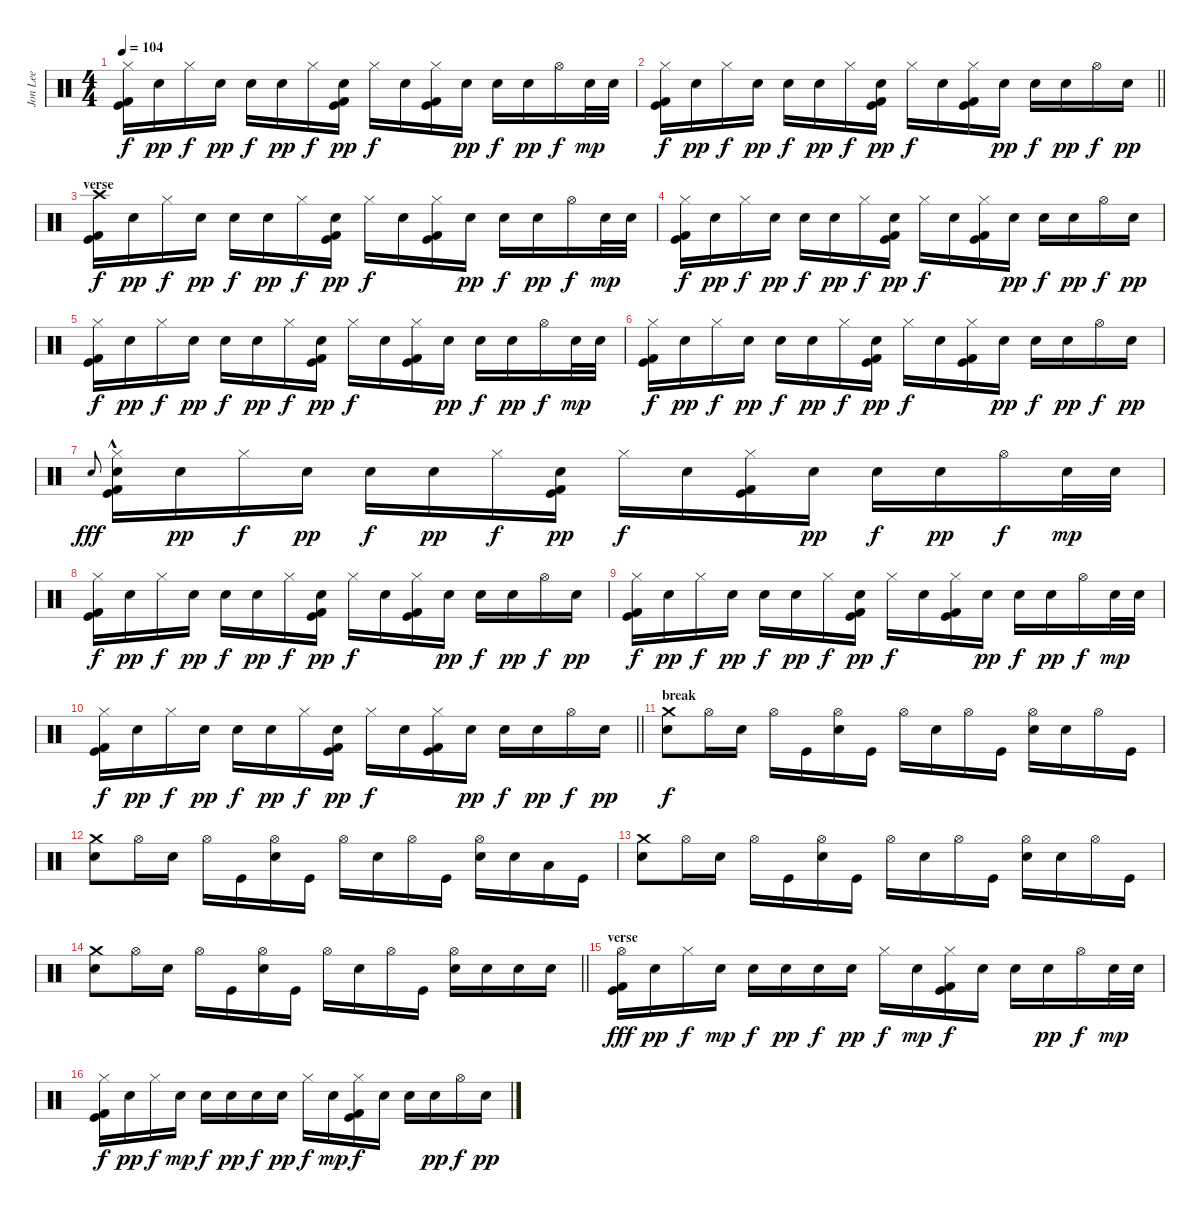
\track ("Jon Lee" "Jon Lee") {instrument percussion}
\staff {score}
\articulation defaults
\ts (4 4)
\tempo 104
\clef neutral
\ks c
("Hi-Hat (closed)" "Kick (hit)" "Kick (hit) 2").16{dy f} "Electric Snare (hit)".16{dy pp} "Hi-Hat (closed)".16{dy f} "Electric Snare (hit)".16{dy pp} "Electric Snare (hit)".16{dy f} "Electric Snare (hit)".16{dy pp} "Hi-Hat (closed)".16{dy f} ("Electric Snare (hit)" "Kick (hit)" "Kick (hit) 2").16{dy pp} "Hi-Hat (closed)".16{dy f} "Electric Snare (hit)".16 ("Hi-Hat (closed)" "Kick (hit)" "Kick (hit) 2").16 "Electric Snare (hit)".16{dy pp} "Electric Snare (hit)".16{dy f} "Electric Snare (hit)".16{dy pp} "Hi-Hat (open)".16{dy f} "Electric Snare (hit)".32{dy mp} "Electric Snare (hit)".32 |
\barLineRight lightlight
("Hi-Hat (closed)" "Kick (hit)" "Kick (hit) 2").16{dy f} "Electric Snare (hit)".16{dy pp} "Hi-Hat (closed)".16{dy f} "Electric Snare (hit)".16{dy pp} "Electric Snare (hit)".16{dy f} "Electric Snare (hit)".16{dy pp} "Hi-Hat (closed)".16{dy f} ("Electric Snare (hit)" "Kick (hit)" "Kick (hit) 2").16{dy pp} "Hi-Hat (closed)".16{dy f} "Electric Snare (hit)".16 ("Hi-Hat (closed)" "Kick (hit)" "Kick (hit) 2").16 "Electric Snare (hit)".16{dy pp} "Electric Snare (hit)".16{dy f} "Electric Snare (hit)".16{dy pp} "Hi-Hat (open)".16{dy f} "Electric Snare (hit)".16{dy pp} |
\section ("" "verse")
("Crash high (hit)" "Kick (hit)" "Kick (hit) 2").16{dy f} "Electric Snare (hit)".16{dy pp} "Hi-Hat (closed)".16{dy f} "Electric Snare (hit)".16{dy pp} "Electric Snare (hit)".16{dy f} "Electric Snare (hit)".16{dy pp} "Hi-Hat (closed)".16{dy f} ("Electric Snare (hit)" "Kick (hit)" "Kick (hit) 2").16{dy pp} "Hi-Hat (closed)".16{dy f} "Electric Snare (hit)".16 ("Hi-Hat (closed)" "Kick (hit)" "Kick (hit) 2").16 "Electric Snare (hit)".16{dy pp} "Electric Snare (hit)".16{dy f} "Electric Snare (hit)".16{dy pp} "Hi-Hat (open)".16{dy f} "Electric Snare (hit)".32{dy mp} "Electric Snare (hit)".32 |
("Hi-Hat (closed)" "Kick (hit)" "Kick (hit) 2").16{dy f} "Electric Snare (hit)".16{dy pp} "Hi-Hat (closed)".16{dy f} "Electric Snare (hit)".16{dy pp} "Electric Snare (hit)".16{dy f} "Electric Snare (hit)".16{dy pp} "Hi-Hat (closed)".16{dy f} ("Electric Snare (hit)" "Kick (hit)" "Kick (hit) 2").16{dy pp} "Hi-Hat (closed)".16{dy f} "Electric Snare (hit)".16 ("Hi-Hat (closed)" "Kick (hit)" "Kick (hit) 2").16 "Electric Snare (hit)".16{dy pp} "Electric Snare (hit)".16{dy f} "Electric Snare (hit)".16{dy pp} "Hi-Hat (open)".16{dy f} "Electric Snare (hit)".16{dy pp} |
("Hi-Hat (closed)" "Kick (hit)" "Kick (hit) 2").16{dy f} "Electric Snare (hit)".16{dy pp} "Hi-Hat (closed)".16{dy f} "Electric Snare (hit)".16{dy pp} "Electric Snare (hit)".16{dy f} "Electric Snare (hit)".16{dy pp} "Hi-Hat (closed)".16{dy f} ("Electric Snare (hit)" "Kick (hit)" "Kick (hit) 2").16{dy pp} "Hi-Hat (closed)".16{dy f} "Electric Snare (hit)".16 ("Hi-Hat (closed)" "Kick (hit)" "Kick (hit) 2").16 "Electric Snare (hit)".16{dy pp} "Electric Snare (hit)".16{dy f} "Electric Snare (hit)".16{dy pp} "Hi-Hat (open)".16{dy f} "Electric Snare (hit)".32{dy mp} "Electric Snare (hit)".32 |
("Hi-Hat (closed)" "Kick (hit)" "Kick (hit) 2").16{dy f} "Electric Snare (hit)".16{dy pp} "Hi-Hat (closed)".16{dy f} "Electric Snare (hit)".16{dy pp} "Electric Snare (hit)".16{dy f} "Electric Snare (hit)".16{dy pp} "Hi-Hat (closed)".16{dy f} ("Electric Snare (hit)" "Kick (hit)" "Kick (hit) 2").16{dy pp} "Hi-Hat (closed)".16{dy f} "Electric Snare (hit)".16 ("Hi-Hat (closed)" "Kick (hit)" "Kick (hit) 2").16 "Electric Snare (hit)".16{dy pp} "Electric Snare (hit)".16{dy f} "Electric Snare (hit)".16{dy pp} "Hi-Hat (open)".16{dy f} "Electric Snare (hit)".16{dy pp} |
"Electric Snare (hit)".8{gr onbeat dy fff} ("Electric Snare (hit)"{hac} "Hi-Hat (closed)" "Kick (hit)" "Kick (hit) 2").16 "Electric Snare (hit)".16{dy pp} "Hi-Hat (closed)".16{dy f} "Electric Snare (hit)".16{dy pp} "Electric Snare (hit)".16{dy f} "Electric Snare (hit)".16{dy pp} "Hi-Hat (closed)".16{dy f} ("Electric Snare (hit)" "Kick (hit)" "Kick (hit) 2").16{dy pp} "Hi-Hat (closed)".16{dy f} "Electric Snare (hit)".16 ("Hi-Hat (closed)" "Kick (hit)" "Kick (hit) 2").16 "Electric Snare (hit)".16{dy pp} "Electric Snare (hit)".16{dy f} "Electric Snare (hit)".16{dy pp} "Hi-Hat (open)".16{dy f} "Electric Snare (hit)".32{dy mp} "Electric Snare (hit)".32 |
("Hi-Hat (closed)" "Kick (hit)" "Kick (hit) 2").16{dy f} "Electric Snare (hit)".16{dy pp} "Hi-Hat (closed)".16{dy f} "Electric Snare (hit)".16{dy pp} "Electric Snare (hit)".16{dy f} "Electric Snare (hit)".16{dy pp} "Hi-Hat (closed)".16{dy f} ("Electric Snare (hit)" "Kick (hit)" "Kick (hit) 2").16{dy pp} "Hi-Hat (closed)".16{dy f} "Electric Snare (hit)".16 ("Hi-Hat (closed)" "Kick (hit)" "Kick (hit) 2").16 "Electric Snare (hit)".16{dy pp} "Electric Snare (hit)".16{dy f} "Electric Snare (hit)".16{dy pp} "Hi-Hat (open)".16{dy f} "Electric Snare (hit)".16{dy pp} |
("Hi-Hat (closed)" "Kick (hit)" "Kick (hit) 2").16{dy f} "Electric Snare (hit)".16{dy pp} "Hi-Hat (closed)".16{dy f} "Electric Snare (hit)".16{dy pp} "Electric Snare (hit)".16{dy f} "Electric Snare (hit)".16{dy pp} "Hi-Hat (closed)".16{dy f} ("Electric Snare (hit)" "Kick (hit)" "Kick (hit) 2").16{dy pp} "Hi-Hat (closed)".16{dy f} "Electric Snare (hit)".16 ("Hi-Hat (closed)" "Kick (hit)" "Kick (hit) 2").16 "Electric Snare (hit)".16{dy pp} "Electric Snare (hit)".16{dy f} "Electric Snare (hit)".16{dy pp} "Hi-Hat (open)".16{dy f} "Electric Snare (hit)".32{dy mp} "Electric Snare (hit)".32 |
\barLineRight lightlight
("Hi-Hat (closed)" "Kick (hit)" "Kick (hit) 2").16{dy f} "Electric Snare (hit)".16{dy pp} "Hi-Hat (closed)".16{dy f} "Electric Snare (hit)".16{dy pp} "Electric Snare (hit)".16{dy f} "Electric Snare (hit)".16{dy pp} "Hi-Hat (closed)".16{dy f} ("Electric Snare (hit)" "Kick (hit)" "Kick (hit) 2").16{dy pp} "Hi-Hat (closed)".16{dy f} "Electric Snare (hit)".16 ("Hi-Hat (closed)" "Kick (hit)" "Kick (hit) 2").16 "Electric Snare (hit)".16{dy pp} "Electric Snare (hit)".16{dy f} "Electric Snare (hit)".16{dy pp} "Hi-Hat (open)".16{dy f} "Electric Snare (hit)".16{dy pp} |
\section ("" "break")
("Crash medium (hit)" "Electric Snare (hit)").8{dy f} "Hi-Hat (open)".16 "Electric Snare (hit)".16 "Hi-Hat (open)".16 "Kick (hit)".16 ("Hi-Hat (open)" "Electric Snare (hit)").16 "Kick (hit)".16 "Hi-Hat (open)".16 "Electric Snare (hit)".16 "Hi-Hat (open)".16 "Kick (hit)".16 ("Hi-Hat (open)" "Electric Snare (hit)").16 "Electric Snare (hit)".16 "Hi-Hat (open)".16 "Kick (hit)".16 |
("Crash medium (hit)" "Electric Snare (hit)").8 "Hi-Hat (open)".16 "Electric Snare (hit)".16 "Hi-Hat (open)".16 "Kick (hit)".16 ("Hi-Hat (open)" "Electric Snare (hit)").16 "Kick (hit)".16 "Hi-Hat (open)".16 "Electric Snare (hit)".16 "Hi-Hat (open)".16 "Kick (hit)".16 ("Hi-Hat (open)" "Electric Snare (hit)").16 "Electric Snare (hit)".16 "Low Tom (hit)".16 "Kick (hit)".16 |
("Crash medium (hit)" "Electric Snare (hit)").8 "Hi-Hat (open)".16 "Electric Snare (hit)".16 "Hi-Hat (open)".16 "Kick (hit)".16 ("Hi-Hat (open)" "Electric Snare (hit)").16 "Kick (hit)".16 "Hi-Hat (open)".16 "Electric Snare (hit)".16 "Hi-Hat (open)".16 "Kick (hit)".16 ("Hi-Hat (open)" "Electric Snare (hit)").16 "Electric Snare (hit)".16 "Hi-Hat (open)".16 "Kick (hit)".16 |
\barLineRight lightlight
("Crash medium (hit)" "Electric Snare (hit)").8 "Hi-Hat (open)".16 "Electric Snare (hit)".16 "Hi-Hat (open)".16 "Kick (hit)".16 ("Hi-Hat (open)" "Electric Snare (hit)").16 "Kick (hit)".16 "Hi-Hat (open)".16 "Electric Snare (hit)".16 "Hi-Hat (open)".16 "Kick (hit)".16 ("Hi-Hat (open)" "Electric Snare (hit)").16 "Electric Snare (hit)".16 "Electric Snare (hit)".16 "Electric Snare (hit)".16 |
\section ("" "verse")
("Hi-Hat (open)" "Kick (hit)" "Kick (hit) 2").16{dy fff} "Electric Snare (hit)".16{dy pp} "Hi-Hat (closed)".16{dy f} "Electric Snare (hit)".16{dy mp} "Electric Snare (hit)".16{dy f} "Electric Snare (hit)".16{dy pp} "Electric Snare (hit)".16{dy f} "Electric Snare (hit)".16{dy pp} "Hi-Hat (closed)".16{dy f} "Electric Snare (hit)".16{dy mp} ("Hi-Hat (closed)" "Kick (hit)" "Kick (hit) 2").16{dy f} "Electric Snare (hit)".16 "Electric Snare (hit)".16 "Electric Snare (hit)".16{dy pp} "Hi-Hat (open)".16{dy f} "Electric Snare (hit)".32{dy mp} "Electric Snare (hit)".32 |
("Hi-Hat (closed)" "Kick (hit)" "Kick (hit) 2").16{dy f} "Electric Snare (hit)".16{dy pp} "Hi-Hat (closed)".16{dy f} "Electric Snare (hit)".16{dy mp} "Electric Snare (hit)".16{dy f} "Electric Snare (hit)".16{dy pp} "Electric Snare (hit)".16{dy f} "Electric Snare (hit)".16{dy pp} "Hi-Hat (closed)".16{dy f} "Electric Snare (hit)".16{dy mp} ("Hi-Hat (closed)" "Kick (hit)" "Kick (hit) 2").16{dy f} "Electric Snare (hit)".16 "Electric Snare (hit)".16 "Electric Snare (hit)".16{dy pp} "Hi-Hat (open)".16{dy f} "Electric Snare (hit)".16{dy pp}
